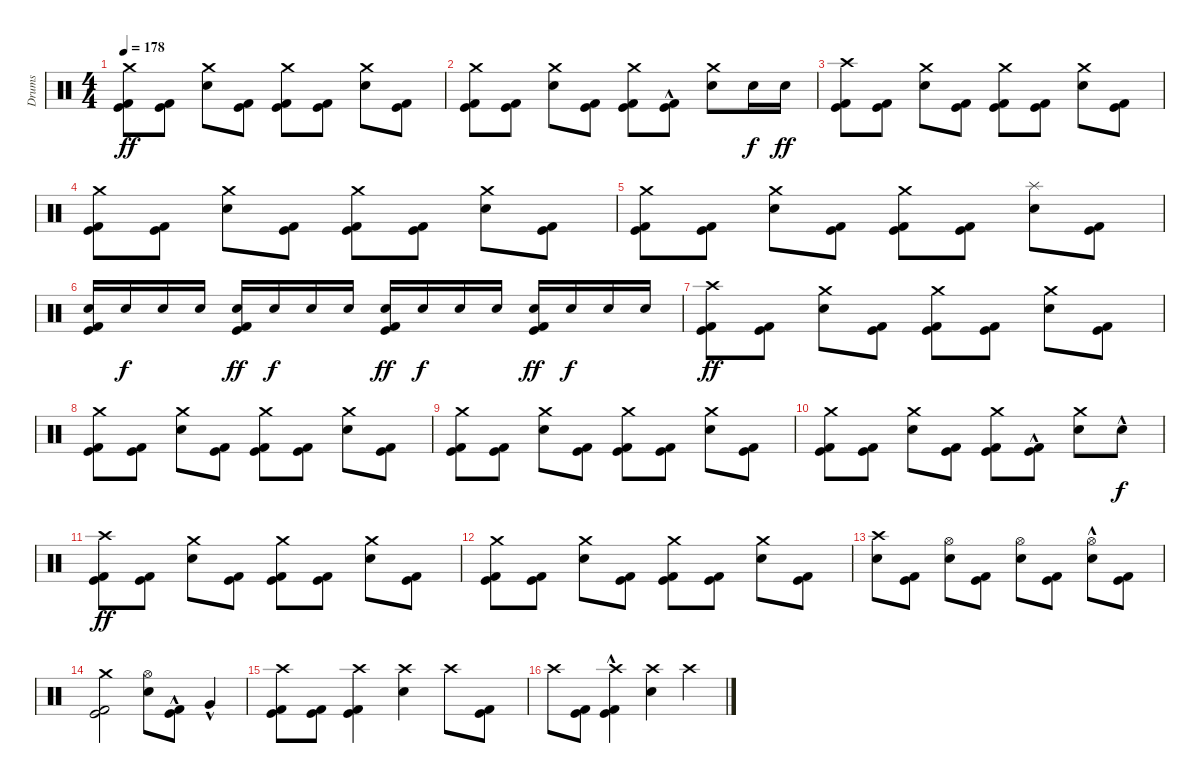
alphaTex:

\track ("Drums" "Drums") {instrument percussion}
\staff {score}
\articulation defaults
\ts (4 4)
\tempo 178
\clef neutral
\ks c
("Kick (hit)" "Kick (hit) 2" "Crash medium (hit)").8{dy ff} ("Kick (hit)" "Kick (hit) 2").8 ("Electric Snare (hit)" "Crash medium (hit)").8 ("Kick (hit)" "Kick (hit) 2").8 ("Kick (hit)" "Kick (hit) 2" "Crash medium (hit)").8 ("Kick (hit)" "Kick (hit) 2").8 ("Electric Snare (hit)" "Crash medium (hit)").8 ("Kick (hit)" "Kick (hit) 2").8 |
("Kick (hit)" "Kick (hit) 2" "Crash medium (hit)").8 ("Kick (hit)" "Kick (hit) 2").8 ("Electric Snare (hit)" "Crash medium (hit)").8 ("Kick (hit)" "Kick (hit) 2").8 ("Kick (hit)" "Kick (hit) 2" "Crash medium (hit)").8 ("Kick (hit)"{hac} "Kick (hit) 2"{hac}).8 ("Electric Snare (hit)" "Crash medium (hit)").8 "Electric Snare (hit)".16{dy f} "Electric Snare (hit)".16{dy ff} |
("Kick (hit)" "Kick (hit) 2" "Crash high (hit)").8 ("Kick (hit)" "Kick (hit) 2").8 ("Electric Snare (hit)" "Crash medium (hit)").8 ("Kick (hit)" "Kick (hit) 2").8 ("Kick (hit)" "Kick (hit) 2" "Crash medium (hit)").8 ("Kick (hit)" "Kick (hit) 2").8 ("Electric Snare (hit)" "Crash medium (hit)").8 ("Kick (hit)" "Kick (hit) 2").8 |
("Kick (hit)" "Kick (hit) 2" "Crash medium (hit)").8 ("Kick (hit)" "Kick (hit) 2").8 ("Electric Snare (hit)" "Crash medium (hit)").8 ("Kick (hit)" "Kick (hit) 2").8 ("Kick (hit)" "Kick (hit) 2" "Crash medium (hit)").8 ("Kick (hit)" "Kick (hit) 2").8 ("Electric Snare (hit)" "Crash medium (hit)").8 ("Kick (hit)" "Kick (hit) 2").8 |
("Kick (hit)" "Kick (hit) 2" "Crash medium (hit)").8 ("Kick (hit)" "Kick (hit) 2").8 ("Electric Snare (hit)" "Crash medium (hit)").8 ("Kick (hit)" "Kick (hit) 2").8 ("Kick (hit)" "Kick (hit) 2" "Crash medium (hit)").8 ("Kick (hit)" "Kick (hit) 2").8 ("Electric Snare (hit)" "Splash (hit)").8 ("Kick (hit)" "Kick (hit) 2").8 |
("Kick (hit)" "Kick (hit) 2" "Electric Snare (hit)").16 "Electric Snare (hit)".16{dy f} "Electric Snare (hit)".16 "Electric Snare (hit)".16 ("Kick (hit)" "Kick (hit) 2" "Electric Snare (hit)").16{dy ff} "Electric Snare (hit)".16{dy f} "Electric Snare (hit)".16 "Electric Snare (hit)".16 ("Kick (hit)" "Kick (hit) 2" "Electric Snare (hit)").16{dy ff} "Electric Snare (hit)".16{dy f} "Electric Snare (hit)".16 "Electric Snare (hit)".16 ("Kick (hit)" "Kick (hit) 2" "Electric Snare (hit)").16{dy ff} "Electric Snare (hit)".16{dy f} "Electric Snare (hit)".16 "Electric Snare (hit)".16 |
("Kick (hit)" "Kick (hit) 2" "Crash high (hit)").8{dy ff} ("Kick (hit)" "Kick (hit) 2").8 ("Electric Snare (hit)" "Crash medium (hit)").8 ("Kick (hit)" "Kick (hit) 2").8 ("Kick (hit)" "Kick (hit) 2" "Crash medium (hit)").8 ("Kick (hit)" "Kick (hit) 2").8 ("Electric Snare (hit)" "Crash medium (hit)").8 ("Kick (hit)" "Kick (hit) 2").8 |
("Kick (hit)" "Kick (hit) 2" "Crash medium (hit)").8 ("Kick (hit)" "Kick (hit) 2").8 ("Electric Snare (hit)" "Crash medium (hit)").8 ("Kick (hit)" "Kick (hit) 2").8 ("Kick (hit)" "Kick (hit) 2" "Crash medium (hit)").8 ("Kick (hit)" "Kick (hit) 2").8 ("Electric Snare (hit)" "Crash medium (hit)").8 ("Kick (hit)" "Kick (hit) 2").8 |
("Kick (hit)" "Kick (hit) 2" "Crash medium (hit)").8 ("Kick (hit)" "Kick (hit) 2").8 ("Electric Snare (hit)" "Crash medium (hit)").8 ("Kick (hit)" "Kick (hit) 2").8 ("Kick (hit)" "Kick (hit) 2" "Crash medium (hit)").8 ("Kick (hit)" "Kick (hit) 2").8 ("Electric Snare (hit)" "Crash medium (hit)").8 ("Kick (hit)" "Kick (hit) 2").8 |
("Kick (hit)" "Kick (hit) 2" "Crash medium (hit)").8 ("Kick (hit)" "Kick (hit) 2").8 ("Electric Snare (hit)" "Crash medium (hit)").8 ("Kick (hit)" "Kick (hit) 2").8 ("Kick (hit)" "Kick (hit) 2" "Crash medium (hit)").8 ("Kick (hit)"{hac} "Kick (hit) 2"{hac}).8 ("Electric Snare (hit)" "Crash medium (hit)").8 "Electric Snare (hit)"{hac}.8{dy f} |
("Kick (hit)" "Kick (hit) 2" "Crash high (hit)").8{dy ff} ("Kick (hit)" "Kick (hit) 2").8 ("Electric Snare (hit)" "Crash medium (hit)").8 ("Kick (hit)" "Kick (hit) 2").8 ("Kick (hit)" "Kick (hit) 2" "Crash medium (hit)").8 ("Kick (hit)" "Kick (hit) 2").8 ("Electric Snare (hit)" "Crash medium (hit)").8 ("Kick (hit)" "Kick (hit) 2").8 |
("Kick (hit)" "Kick (hit) 2" "Crash medium (hit)").8 ("Kick (hit)" "Kick (hit) 2").8 ("Electric Snare (hit)" "Crash medium (hit)").8 ("Kick (hit)" "Kick (hit) 2").8 ("Kick (hit)" "Kick (hit) 2" "Crash medium (hit)").8 ("Kick (hit)" "Kick (hit) 2").8 ("Electric Snare (hit)" "Crash medium (hit)").8 ("Kick (hit)" "Kick (hit) 2").8 |
("Electric Snare (hit)" "Crash high (hit)").8 ("Kick (hit)" "Kick (hit) 2").8 ("Electric Snare (hit)" "Hi-Hat (open)").8 ("Kick (hit)" "Kick (hit) 2").8 ("Electric Snare (hit)" "Hi-Hat (open)").8 ("Kick (hit)" "Kick (hit) 2").8 ("Electric Snare (hit)"{hac} "Hi-Hat (open)"{hac}).8 ("Kick (hit)" "Kick (hit) 2").8 |
("Kick (hit)" "Kick (hit) 2" "Crash medium (hit)").2 ("Electric Snare (hit)" "Hi-Hat (open)").8 ("Kick (hit)"{hac} "Kick (hit) 2"{hac}).8 "Very Low Tom (hit)"{hac}.4 |
("Kick (hit)" "Kick (hit) 2" "Crash high (hit)").8 ("Kick (hit)" "Kick (hit) 2").8 ("Kick (hit)" "Kick (hit) 2" "Crash high (hit)").4 ("Electric Snare (hit)" "Crash high (hit)").4 "Crash high (hit)".8 ("Kick (hit)" "Kick (hit) 2").8 |
"Crash high (hit)".8 ("Kick (hit)" "Kick (hit) 2").8 ("Kick (hit)"{hac} "Kick (hit) 2"{hac} "Crash high (hit)").4 ("Electric Snare (hit)" "Crash high (hit)").4 "Crash high (hit)".4
